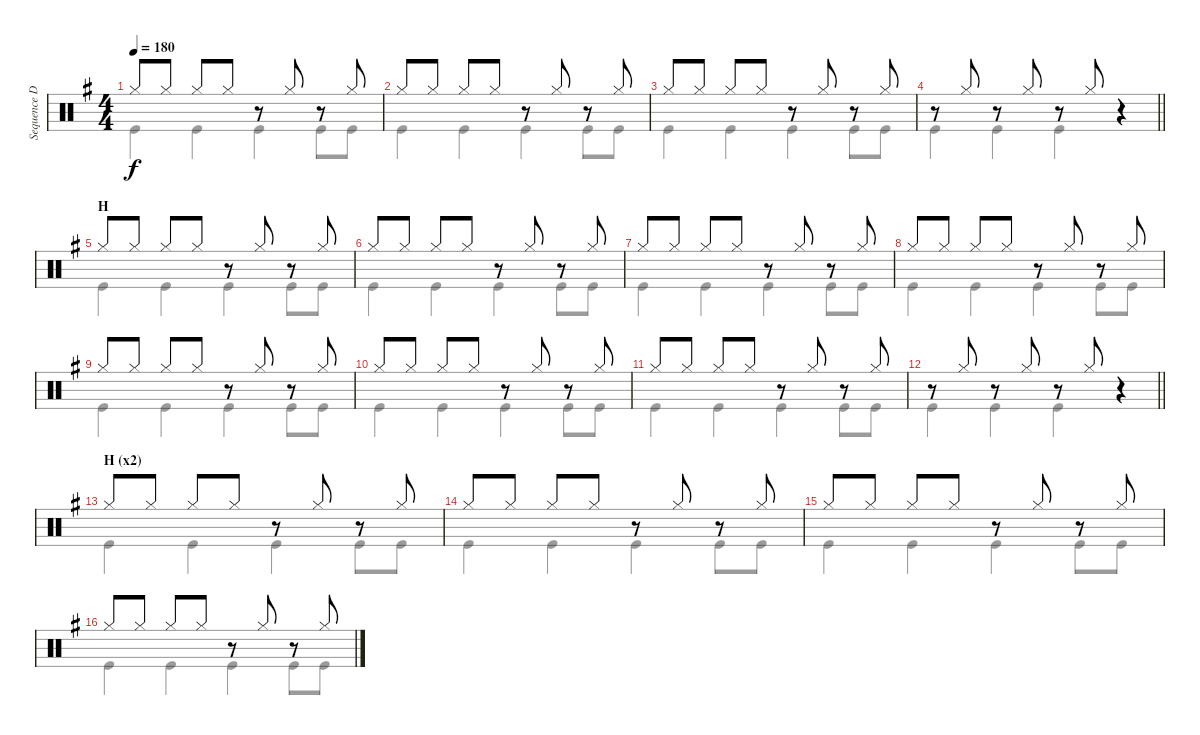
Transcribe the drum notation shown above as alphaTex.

\track ("Sequence Drums" "Sequence D") {instrument percussion}
\staff {score}
\articulation defaults
\voice
\ts (4 4)
\tempo 180
\clef neutral
\ks g "Hi-Hat (closed)".8{dy f} "Hi-Hat (closed)".8 "Hi-Hat (closed)".8 "Hi-Hat (closed)".8
r.8 "Hi-Hat (closed)".8 r.8 "Hi-Hat (closed)".8 |
"Hi-Hat (closed)".8 "Hi-Hat (closed)".8 "Hi-Hat (closed)".8 "Hi-Hat (closed)".8 r.8 "Hi-Hat (closed)".8 r.8 "Hi-Hat (closed)".8 |
"Hi-Hat (closed)".8 "Hi-Hat (closed)".8 "Hi-Hat (closed)".8 "Hi-Hat (closed)".8 r.8 "Hi-Hat (closed)".8 r.8 "Hi-Hat (closed)".8 |
\barLineRight lightlight
r.8 "Hi-Hat (closed)".8 r.8 "Hi-Hat (closed)".8 r.8 "Hi-Hat (closed)".8 r.4 |
\section ("" "H")
"Hi-Hat (closed)".8 "Hi-Hat (closed)".8 "Hi-Hat (closed)".8 "Hi-Hat (closed)".8 r.8 "Hi-Hat (closed)".8 r.8 "Hi-Hat (closed)".8 |
"Hi-Hat (closed)".8 "Hi-Hat (closed)".8 "Hi-Hat (closed)".8 "Hi-Hat (closed)".8 r.8 "Hi-Hat (closed)".8 r.8 "Hi-Hat (closed)".8 |
"Hi-Hat (closed)".8 "Hi-Hat (closed)".8 "Hi-Hat (closed)".8 "Hi-Hat (closed)".8 r.8 "Hi-Hat (closed)".8 r.8 "Hi-Hat (closed)".8 |
"Hi-Hat (closed)".8 "Hi-Hat (closed)".8 "Hi-Hat (closed)".8 "Hi-Hat (closed)".8 r.8 "Hi-Hat (closed)".8 r.8 "Hi-Hat (closed)".8 |
"Hi-Hat (closed)".8 "Hi-Hat (closed)".8 "Hi-Hat (closed)".8 "Hi-Hat (closed)".8 r.8 "Hi-Hat (closed)".8 r.8 "Hi-Hat (closed)".8 |
"Hi-Hat (closed)".8 "Hi-Hat (closed)".8 "Hi-Hat (closed)".8 "Hi-Hat (closed)".8 r.8 "Hi-Hat (closed)".8 r.8 "Hi-Hat (closed)".8 |
"Hi-Hat (closed)".8 "Hi-Hat (closed)".8 "Hi-Hat (closed)".8 "Hi-Hat (closed)".8 r.8 "Hi-Hat (closed)".8 r.8 "Hi-Hat (closed)".8 |
\barLineRight lightlight
r.8 "Hi-Hat (closed)".8 r.8 "Hi-Hat (closed)".8 r.8 "Hi-Hat (closed)".8 r.4 |
\section ("" "H (x2)")
"Hi-Hat (closed)".8 "Hi-Hat (closed)".8 "Hi-Hat (closed)".8 "Hi-Hat (closed)".8 r.8 "Hi-Hat (closed)".8 r.8 "Hi-Hat (closed)".8 |
"Hi-Hat (closed)".8 "Hi-Hat (closed)".8 "Hi-Hat (closed)".8 "Hi-Hat (closed)".8 r.8 "Hi-Hat (closed)".8 r.8 "Hi-Hat (closed)".8 |
"Hi-Hat (closed)".8 "Hi-Hat (closed)".8 "Hi-Hat (closed)".8 "Hi-Hat (closed)".8 r.8 "Hi-Hat (closed)".8 r.8 "Hi-Hat (closed)".8 |
"Hi-Hat (closed)".8 "Hi-Hat (closed)".8 "Hi-Hat (closed)".8 "Hi-Hat (closed)".8 r.8 "Hi-Hat (closed)".8 r.8 "Hi-Hat (closed)".8
\voice
\clef neutral
\ottava regular
\simile none
\ks g "Kick (hit)".4{dy f} "Kick (hit)".4 "Kick (hit)".4 "Kick (hit)".8 "Kick (hit)".8
|
"Kick (hit)".4 "Kick (hit)".4 "Kick (hit)".4 "Kick (hit)".8 "Kick (hit)".8 |
"Kick (hit)".4 "Kick (hit)".4 "Kick (hit)".4 "Kick (hit)".8 "Kick (hit)".8 |
\barLineRight lightlight "Kick (hit)".4 "Kick (hit)".4 "Kick (hit)".4
r.4 |
"Kick (hit)".4 "Kick (hit)".4 "Kick (hit)".4 "Kick (hit)".8 "Kick (hit)".8 |
"Kick (hit)".4 "Kick (hit)".4 "Kick (hit)".4 "Kick (hit)".8 "Kick (hit)".8 |
"Kick (hit)".4 "Kick (hit)".4 "Kick (hit)".4 "Kick (hit)".8 "Kick (hit)".8 |
"Kick (hit)".4 "Kick (hit)".4 "Kick (hit)".4 "Kick (hit)".8 "Kick (hit)".8 |
"Kick (hit)".4 "Kick (hit)".4 "Kick (hit)".4 "Kick (hit)".8 "Kick (hit)".8 |
"Kick (hit)".4 "Kick (hit)".4 "Kick (hit)".4 "Kick (hit)".8 "Kick (hit)".8 |
"Kick (hit)".4 "Kick (hit)".4 "Kick (hit)".4 "Kick (hit)".8 "Kick (hit)".8 |
\barLineRight lightlight "Kick (hit)".4 "Kick (hit)".4 "Kick (hit)".4
r.4 |
"Kick (hit)".4 "Kick (hit)".4 "Kick (hit)".4 "Kick (hit)".8 "Kick (hit)".8 |
"Kick (hit)".4 "Kick (hit)".4 "Kick (hit)".4 "Kick (hit)".8 "Kick (hit)".8 |
"Kick (hit)".4 "Kick (hit)".4 "Kick (hit)".4 "Kick (hit)".8 "Kick (hit)".8 |
"Kick (hit)".4 "Kick (hit)".4 "Kick (hit)".4 "Kick (hit)".8 "Kick (hit)".8
